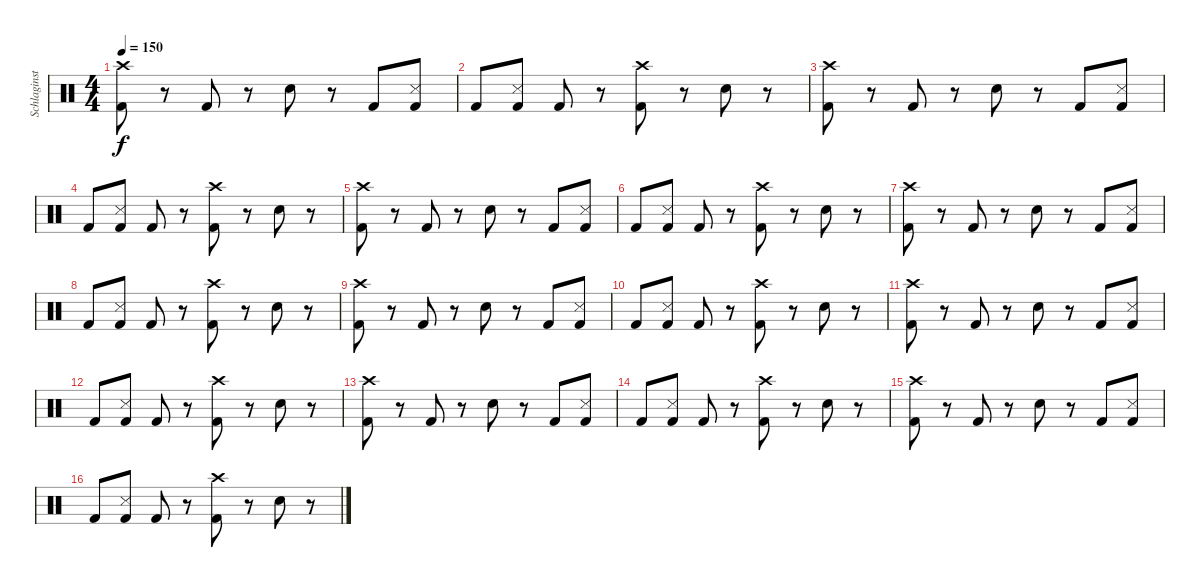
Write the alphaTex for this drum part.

\track ("Schlaginstrumente - Auswahl" "Schlaginst") {instrument percussion}
\staff {score}
\articulation defaults
\ts (4 4)
\tempo 150
\clef neutral
\ks c
("Kick (hit) 2" "Crash high (hit)").8{dy f} r.8 "Kick (hit) 2".8 r.8 "Snare (hit) 2".8 r.8 "Kick (hit) 2".8 ("Metronome (hit)" "Kick (hit) 2").8 |
"Kick (hit) 2".8 ("Metronome (hit)" "Kick (hit) 2").8 "Kick (hit) 2".8 r.8 ("Kick (hit) 2" "Crash high (hit)").8 r.8 "Snare (hit) 2".8 r.8 |
("Kick (hit) 2" "Crash high (hit)").8 r.8 "Kick (hit) 2".8 r.8 "Snare (hit) 2".8 r.8 "Kick (hit) 2".8 ("Metronome (hit)" "Kick (hit) 2").8 |
"Kick (hit) 2".8 ("Metronome (hit)" "Kick (hit) 2").8 "Kick (hit) 2".8 r.8 ("Kick (hit) 2" "Crash high (hit)").8 r.8 "Snare (hit) 2".8 r.8 |
("Kick (hit) 2" "Crash high (hit)").8 r.8 "Kick (hit) 2".8 r.8 "Snare (hit) 2".8 r.8 "Kick (hit) 2".8 ("Metronome (hit)" "Kick (hit) 2").8 |
"Kick (hit) 2".8 ("Metronome (hit)" "Kick (hit) 2").8 "Kick (hit) 2".8 r.8 ("Kick (hit) 2" "Crash high (hit)").8 r.8 "Snare (hit) 2".8 r.8 |
("Kick (hit) 2" "Crash high (hit)").8 r.8 "Kick (hit) 2".8 r.8 "Snare (hit) 2".8 r.8 "Kick (hit) 2".8 ("Metronome (hit)" "Kick (hit) 2").8 |
"Kick (hit) 2".8 ("Metronome (hit)" "Kick (hit) 2").8 "Kick (hit) 2".8 r.8 ("Kick (hit) 2" "Crash high (hit)").8 r.8 "Snare (hit) 2".8 r.8 |
("Kick (hit) 2" "Crash high (hit)").8 r.8 "Kick (hit) 2".8 r.8 "Snare (hit) 2".8 r.8 "Kick (hit) 2".8 ("Metronome (hit)" "Kick (hit) 2").8 |
"Kick (hit) 2".8 ("Metronome (hit)" "Kick (hit) 2").8 "Kick (hit) 2".8 r.8 ("Kick (hit) 2" "Crash high (hit)").8 r.8 "Snare (hit) 2".8 r.8 |
("Kick (hit) 2" "Crash high (hit)").8 r.8 "Kick (hit) 2".8 r.8 "Snare (hit) 2".8 r.8 "Kick (hit) 2".8 ("Metronome (hit)" "Kick (hit) 2").8 |
"Kick (hit) 2".8 ("Metronome (hit)" "Kick (hit) 2").8 "Kick (hit) 2".8 r.8 ("Kick (hit) 2" "Crash high (hit)").8 r.8 "Snare (hit) 2".8 r.8 |
("Kick (hit) 2" "Crash high (hit)").8 r.8 "Kick (hit) 2".8 r.8 "Snare (hit) 2".8 r.8 "Kick (hit) 2".8 ("Metronome (hit)" "Kick (hit) 2").8 |
"Kick (hit) 2".8 ("Metronome (hit)" "Kick (hit) 2").8 "Kick (hit) 2".8 r.8 ("Kick (hit) 2" "Crash high (hit)").8 r.8 "Snare (hit) 2".8 r.8 |
("Kick (hit) 2" "Crash high (hit)").8 r.8 "Kick (hit) 2".8 r.8 "Snare (hit) 2".8 r.8 "Kick (hit) 2".8 ("Metronome (hit)" "Kick (hit) 2").8 |
"Kick (hit) 2".8 ("Metronome (hit)" "Kick (hit) 2").8 "Kick (hit) 2".8 r.8 ("Kick (hit) 2" "Crash high (hit)").8 r.8 "Snare (hit) 2".8 r.8
